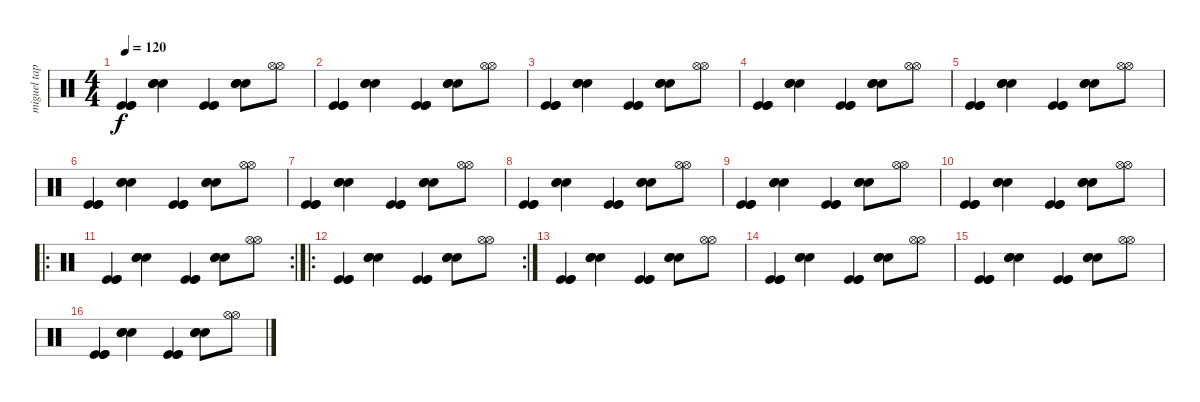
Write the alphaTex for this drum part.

\track ("miguel tapia" "miguel tap") {instrument percussion}
\staff {score}
\articulation defaults
\ts (4 4)
\tempo 120
\clef neutral
\ks c
("Kick (hit)" "Kick (hit)" "Kick (hit)").4{dy f} ("Snare (hit) 2" "Snare (hit) 2" "Snare (hit) 2").4 ("Kick (hit)" "Kick (hit)" "Kick (hit)").4 ("Snare (hit) 2" "Snare (hit) 2" "Snare (hit) 2").8 ("Hi-Hat (open)" "Hi-Hat (open)").8 |
("Kick (hit)" "Kick (hit)" "Kick (hit)").4 ("Snare (hit) 2" "Snare (hit) 2" "Snare (hit) 2").4 ("Kick (hit)" "Kick (hit)" "Kick (hit)").4 ("Snare (hit) 2" "Snare (hit) 2" "Snare (hit) 2").8 ("Hi-Hat (open)" "Hi-Hat (open)").8 |
("Kick (hit)" "Kick (hit)" "Kick (hit)").4 ("Snare (hit) 2" "Snare (hit) 2" "Snare (hit) 2").4 ("Kick (hit)" "Kick (hit)" "Kick (hit)").4 ("Snare (hit) 2" "Snare (hit) 2" "Snare (hit) 2").8 ("Hi-Hat (open)" "Hi-Hat (open)").8 |
("Kick (hit)" "Kick (hit)" "Kick (hit)").4 ("Snare (hit) 2" "Snare (hit) 2" "Snare (hit) 2").4 ("Kick (hit)" "Kick (hit)" "Kick (hit)").4 ("Snare (hit) 2" "Snare (hit) 2" "Snare (hit) 2").8 ("Hi-Hat (open)" "Hi-Hat (open)").8 |
("Kick (hit)" "Kick (hit)" "Kick (hit)").4 ("Snare (hit) 2" "Snare (hit) 2" "Snare (hit) 2").4 ("Kick (hit)" "Kick (hit)" "Kick (hit)").4 ("Snare (hit) 2" "Snare (hit) 2" "Snare (hit) 2").8 ("Hi-Hat (open)" "Hi-Hat (open)").8 |
("Kick (hit)" "Kick (hit)" "Kick (hit)").4 ("Snare (hit) 2" "Snare (hit) 2" "Snare (hit) 2").4 ("Kick (hit)" "Kick (hit)" "Kick (hit)").4 ("Snare (hit) 2" "Snare (hit) 2" "Snare (hit) 2").8 ("Hi-Hat (open)" "Hi-Hat (open)").8 |
("Kick (hit)" "Kick (hit)" "Kick (hit)").4 ("Snare (hit) 2" "Snare (hit) 2" "Snare (hit) 2").4 ("Kick (hit)" "Kick (hit)" "Kick (hit)").4 ("Snare (hit) 2" "Snare (hit) 2" "Snare (hit) 2").8 ("Hi-Hat (open)" "Hi-Hat (open)").8 |
("Kick (hit)" "Kick (hit)" "Kick (hit)").4 ("Snare (hit) 2" "Snare (hit) 2" "Snare (hit) 2").4 ("Kick (hit)" "Kick (hit)" "Kick (hit)").4 ("Snare (hit) 2" "Snare (hit) 2" "Snare (hit) 2").8 ("Hi-Hat (open)" "Hi-Hat (open)").8 |
("Kick (hit)" "Kick (hit)" "Kick (hit)").4 ("Snare (hit) 2" "Snare (hit) 2" "Snare (hit) 2").4 ("Kick (hit)" "Kick (hit)" "Kick (hit)").4 ("Snare (hit) 2" "Snare (hit) 2" "Snare (hit) 2").8 ("Hi-Hat (open)" "Hi-Hat (open)").8 |
("Kick (hit)" "Kick (hit)" "Kick (hit)").4 ("Snare (hit) 2" "Snare (hit) 2" "Snare (hit) 2").4 ("Kick (hit)" "Kick (hit)" "Kick (hit)").4 ("Snare (hit) 2" "Snare (hit) 2" "Snare (hit) 2").8 ("Hi-Hat (open)" "Hi-Hat (open)").8 |
\ro
\rc 2
("Kick (hit)" "Kick (hit)" "Kick (hit)").4 ("Snare (hit) 2" "Snare (hit) 2" "Snare (hit) 2").4 ("Kick (hit)" "Kick (hit)" "Kick (hit)").4 ("Snare (hit) 2" "Snare (hit) 2" "Snare (hit) 2").8 ("Hi-Hat (open)" "Hi-Hat (open)").8 |
\ro
\rc 2
("Kick (hit)" "Kick (hit)" "Kick (hit)").4 ("Snare (hit) 2" "Snare (hit) 2" "Snare (hit) 2").4 ("Kick (hit)" "Kick (hit)" "Kick (hit)").4 ("Snare (hit) 2" "Snare (hit) 2" "Snare (hit) 2").8 ("Hi-Hat (open)" "Hi-Hat (open)").8 |
("Kick (hit)" "Kick (hit)" "Kick (hit)").4 ("Snare (hit) 2" "Snare (hit) 2" "Snare (hit) 2").4 ("Kick (hit)" "Kick (hit)" "Kick (hit)").4 ("Snare (hit) 2" "Snare (hit) 2" "Snare (hit) 2").8 ("Hi-Hat (open)" "Hi-Hat (open)").8 |
("Kick (hit)" "Kick (hit)" "Kick (hit)").4 ("Snare (hit) 2" "Snare (hit) 2" "Snare (hit) 2").4 ("Kick (hit)" "Kick (hit)" "Kick (hit)").4 ("Snare (hit) 2" "Snare (hit) 2" "Snare (hit) 2").8 ("Hi-Hat (open)" "Hi-Hat (open)").8 |
("Kick (hit)" "Kick (hit)" "Kick (hit)").4 ("Snare (hit) 2" "Snare (hit) 2" "Snare (hit) 2").4 ("Kick (hit)" "Kick (hit)" "Kick (hit)").4 ("Snare (hit) 2" "Snare (hit) 2" "Snare (hit) 2").8 ("Hi-Hat (open)" "Hi-Hat (open)").8 |
("Kick (hit)" "Kick (hit)" "Kick (hit)").4 ("Snare (hit) 2" "Snare (hit) 2" "Snare (hit) 2").4 ("Kick (hit)" "Kick (hit)" "Kick (hit)").4 ("Snare (hit) 2" "Snare (hit) 2" "Snare (hit) 2").8 ("Hi-Hat (open)" "Hi-Hat (open)").8
